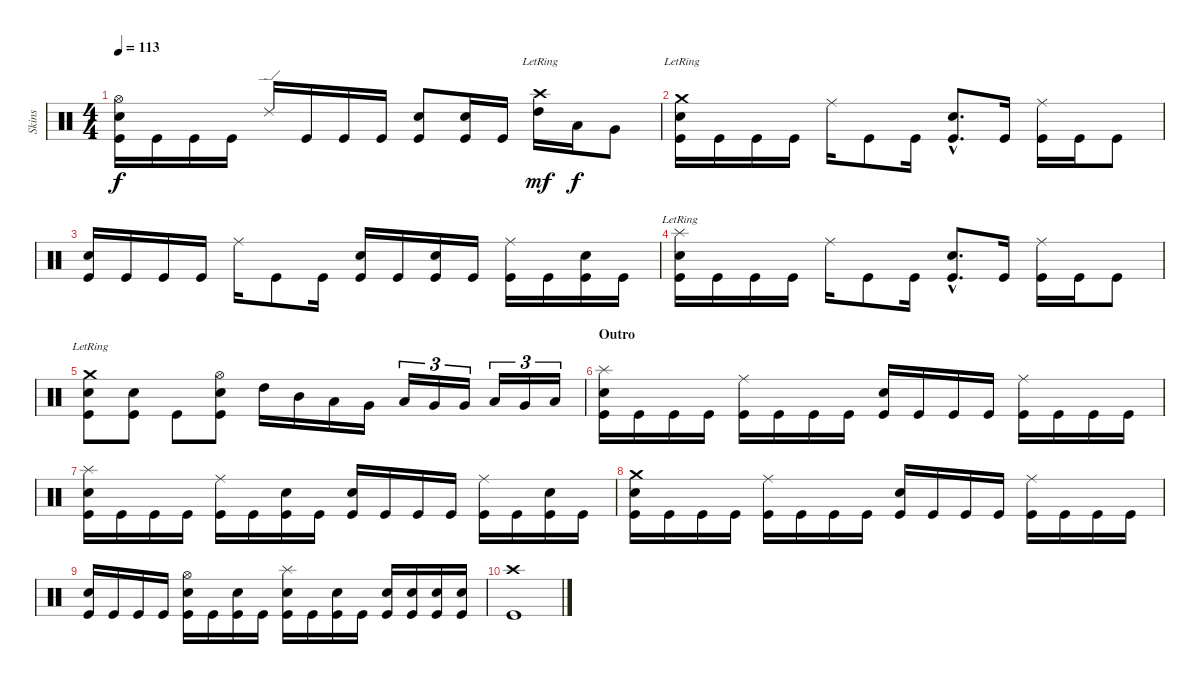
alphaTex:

\track ("Skins" "Skins") {instrument percussion}
\staff {score}
\articulation defaults
\ts (4 4)
\tempo 113
\clef neutral
\ks c
("Hi-Hat (open)" "Electric Snare (hit)" "Kick (hit)").16{dy f} "Kick (hit)".16 "Kick (hit)".16 "Kick (hit)".16 "Ride (edge) 2".16 "Kick (hit)".16 "Kick (hit)".16 "Kick (hit)".16 ("Snare (hit) 2" "Kick (hit)").8 ("Snare (hit) 2" "Kick (hit)").16 "Kick (hit)".16 ("Crash high (hit)"{lr} "High Tom (hit)").16{dy mf} "Low Tom (hit)".16{dy f} "Very Low Tom (hit)".8 |
("Crash medium (hit)"{lr} "Electric Snare (hit)" "Kick (hit)").16 "Kick (hit)".16 "Kick (hit)".16 "Kick (hit)".16 "Ride (middle)".16 "Kick (hit)".8 "Kick (hit)".16 ("Electric Snare (hit)"{hac} "Kick (hit)"{hac}).8{d} "Kick (hit)".16 ("Ride (middle)" "Kick (hit)").16 "Kick (hit)".16 "Kick (hit)".8 |
("Electric Snare (hit)" "Kick (hit)").16 "Kick (hit)".16 "Kick (hit)".16 "Kick (hit)".16 "Ride (middle)".16 "Kick (hit)".8 "Kick (hit)".16 ("Snare (hit) 2" "Kick (hit)").16 "Kick (hit)".16 ("Snare (hit) 2" "Kick (hit)").16 "Kick (hit)".16 ("Ride (middle)" "Kick (hit)").16 "Kick (hit)".16 ("Snare (hit) 2" "Kick (hit)").16 "Kick (hit)".16 |
("Splash (hit)"{lr} "Electric Snare (hit)" "Kick (hit)").16 "Kick (hit)".16 "Kick (hit)".16 "Kick (hit)".16 "Ride (middle)".16 "Kick (hit)".8 "Kick (hit)".16 ("Electric Snare (hit)"{hac} "Kick (hit)"{hac}).8{d} "Kick (hit)".16 ("Ride (middle)" "Kick (hit)").16 "Kick (hit)".16 "Kick (hit)".8 |
("Crash medium (hit)"{lr} "Electric Snare (hit)" "Kick (hit)").8 ("Snare (hit) 2" "Kick (hit)").8 "Kick (hit)".8 ("Hi-Hat (open)" "Electric Snare (hit)" "Kick (hit)").8 "High Tom (hit)".16 "Mid Tom (hit)".16 "Low Tom (hit)".16 "Very Low Tom (hit)".16 "Low Tom (hit)".16{tu (3 2)} "Very Low Tom (hit)".16{tu (3 2)} "Very Low Tom (hit)".16{tu (3 2)} "Low Floor Tom (hit)".16{tu (3 2)} "Very Low Tom (hit)".16{tu (3 2)} "Low Floor Tom (hit)".16{tu (3 2)} |
\section ("" "Outro")
("Splash (hit)" "Electric Snare (hit)" "Kick (hit)").16 "Kick (hit)".16 "Kick (hit)".16 "Kick (hit)".16 ("Ride (middle)" "Kick (hit)").16 "Kick (hit)".16 "Kick (hit)".16 "Kick (hit)".16 ("Electric Snare (hit)" "Kick (hit)").16 "Kick (hit)".16 "Kick (hit)".16 "Kick (hit)".16 ("Ride (middle)" "Kick (hit)").16 "Kick (hit)".16 "Kick (hit)".16 "Kick (hit)".16 |
("Splash (hit)" "Electric Snare (hit)" "Kick (hit)").16 "Kick (hit)".16 "Kick (hit)".16 "Kick (hit)".16 ("Ride (middle)" "Kick (hit)").16 "Kick (hit)".16 ("Snare (hit) 2" "Kick (hit)").16 "Kick (hit)".16 ("Electric Snare (hit)" "Kick (hit)").16 "Kick (hit)".16 "Kick (hit)".16 "Kick (hit)".16 ("Ride (middle)" "Kick (hit)").16 "Kick (hit)".16 ("Snare (hit) 2" "Kick (hit)").16 "Kick (hit)".16 |
("Crash medium (hit)" "Electric Snare (hit)" "Kick (hit)").16 "Kick (hit)".16 "Kick (hit)".16 "Kick (hit)".16 ("Ride (middle)" "Kick (hit)").16 "Kick (hit)".16 "Kick (hit)".16 "Kick (hit)".16 ("Electric Snare (hit)" "Kick (hit)").16 "Kick (hit)".16 "Kick (hit)".16 "Kick (hit)".16 ("Ride (middle)" "Kick (hit)").16 "Kick (hit)".16 "Kick (hit)".16 "Kick (hit)".16 |
("Electric Snare (hit)" "Kick (hit)").16 "Kick (hit)".16 "Kick (hit)".16 "Kick (hit)".16 ("Hi-Hat (open)" "Snare (hit) 2" "Kick (hit)").16 "Kick (hit)".16 ("Snare (hit) 2" "Kick (hit)").16 "Kick (hit)".16 ("Splash (hit)" "Electric Snare (hit)" "Kick (hit)").16 "Kick (hit)".16 ("Snare (hit) 2" "Kick (hit)").16 "Kick (hit)".16 ("Snare (hit) 2" "Kick (hit)").16 ("Snare (hit) 2" "Kick (hit)").16 ("Snare (hit) 2" "Kick (hit)").16 ("Snare (hit) 2" "Kick (hit)").16 |
("Crash high (hit)" "Kick (hit)").1
